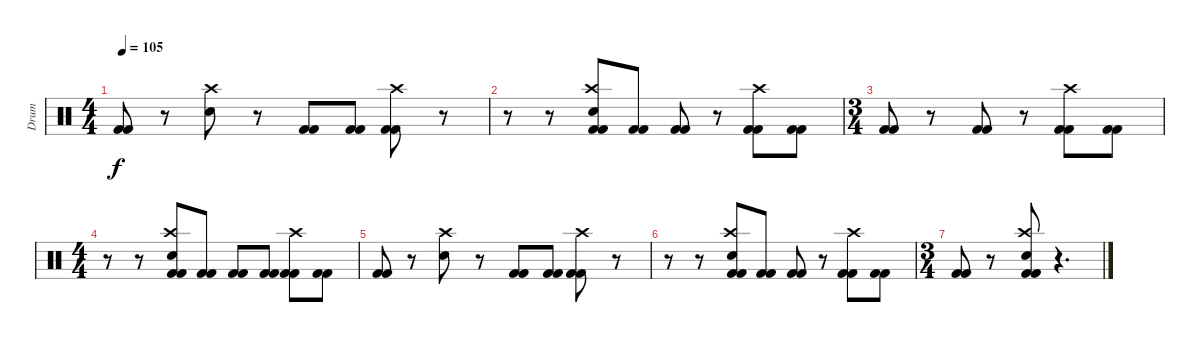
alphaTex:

\track ("Drum" "Drum") {instrument percussion}
\staff {score}
\articulation defaults
\ts (4 4)
\tempo 105
\clef neutral
\ks c
("Kick (hit) 2" "Kick (hit) 2").8{dy f} r.8 ("Crash high (hit)" "Electric Snare (hit)").8 r.8 ("Kick (hit) 2" "Kick (hit) 2").8 ("Kick (hit) 2" "Kick (hit) 2").8 ("Crash high (hit)" "Kick (hit) 2" "Kick (hit) 2").8 r.8 |
r.8 r.8 ("Crash high (hit)" "Electric Snare (hit)" "Kick (hit) 2" "Kick (hit) 2").8 ("Kick (hit) 2" "Kick (hit) 2").8 ("Kick (hit) 2" "Kick (hit) 2").8 r.8 ("Crash high (hit)" "Kick (hit) 2" "Kick (hit) 2").8 ("Kick (hit) 2" "Kick (hit) 2").8 |
\ts (3 4)
("Kick (hit) 2" "Kick (hit) 2").8 r.8 ("Kick (hit) 2" "Kick (hit) 2").8 r.8 ("Crash high (hit)" "Kick (hit) 2" "Kick (hit) 2").8 ("Kick (hit) 2" "Kick (hit) 2").8 |
\ts (4 4)
r.8 r.8 ("Crash high (hit)" "Electric Snare (hit)" "Kick (hit) 2" "Kick (hit) 2").8 ("Kick (hit) 2" "Kick (hit) 2").8 ("Kick (hit) 2" "Kick (hit) 2").8 ("Kick (hit) 2" "Kick (hit) 2").8 ("Crash high (hit)" "Kick (hit) 2" "Kick (hit) 2").8 ("Kick (hit) 2" "Kick (hit) 2").8 |
("Kick (hit) 2" "Kick (hit) 2").8 r.8 ("Crash high (hit)" "Electric Snare (hit)").8 r.8 ("Kick (hit) 2" "Kick (hit) 2").8 ("Kick (hit) 2" "Kick (hit) 2").8 ("Crash high (hit)" "Kick (hit) 2" "Kick (hit) 2").8 r.8 |
r.8 r.8 ("Crash high (hit)" "Electric Snare (hit)" "Kick (hit) 2" "Kick (hit) 2").8 ("Kick (hit) 2" "Kick (hit) 2").8 ("Kick (hit) 2" "Kick (hit) 2").8 r.8 ("Crash high (hit)" "Kick (hit) 2" "Kick (hit) 2").8 ("Kick (hit) 2" "Kick (hit) 2").8 |
\ts (3 4)
("Kick (hit) 2" "Kick (hit) 2").8 r.8 ("Crash high (hit)" "Electric Snare (hit)" "Kick (hit) 2" "Kick (hit) 2").8 r.4{d}
